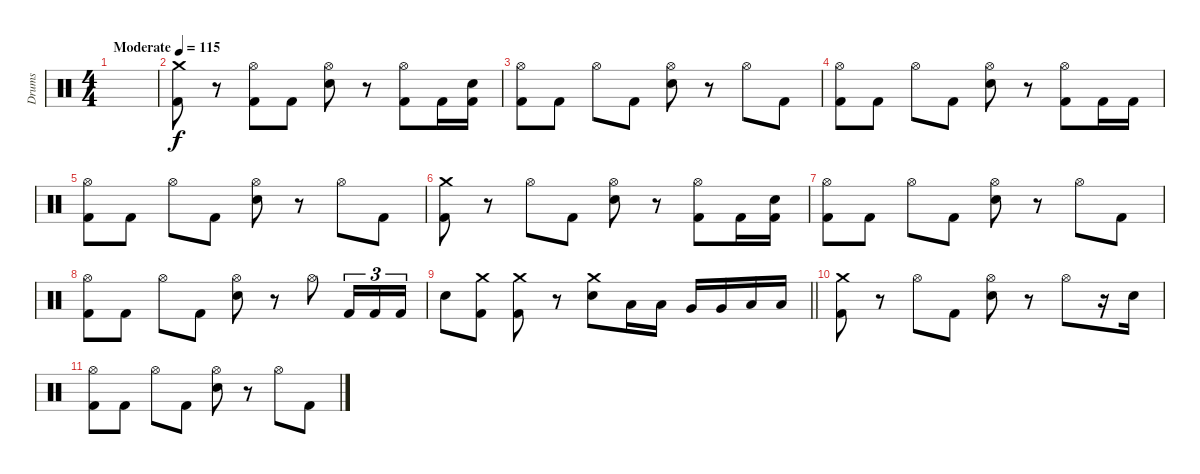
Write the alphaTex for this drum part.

\track ("Drums" "Drums") {instrument percussion}
\staff {score}
\articulation defaults
\ts (4 4)
\tempo (115 "Moderate")
\clef neutral
\ks c
|
("Crash medium (hit)" "Kick (hit) 2").8 r.8 ("Hi-Hat (open)" "Kick (hit) 2").8 "Kick (hit) 2".8 ("Hi-Hat (open)" "Snare (hit) 2").8 r.8 ("Hi-Hat (open)" "Kick (hit) 2").8 "Kick (hit) 2".16 ("Snare (hit) 2" "Kick (hit) 2").16 |
("Hi-Hat (open)" "Kick (hit) 2").8 "Kick (hit) 2".8 "Hi-Hat (open)".8 "Kick (hit) 2".8 ("Hi-Hat (open)" "Snare (hit) 2").8 r.8 "Hi-Hat (open)".8 "Kick (hit) 2".8 |
("Hi-Hat (open)" "Kick (hit) 2").8 "Kick (hit) 2".8 "Hi-Hat (open)".8 "Kick (hit) 2".8 ("Hi-Hat (open)" "Snare (hit) 2").8 r.8 ("Hi-Hat (open)" "Kick (hit) 2").8 "Kick (hit) 2".16 "Kick (hit) 2".16 |
("Hi-Hat (open)" "Kick (hit) 2").8 "Kick (hit) 2".8 "Hi-Hat (open)".8 "Kick (hit) 2".8 ("Hi-Hat (open)" "Snare (hit) 2").8 r.8 "Hi-Hat (open)".8 "Kick (hit) 2".8 |
("Crash medium (hit)" "Kick (hit) 2").8 r.8 "Hi-Hat (open)".8 "Kick (hit) 2".8 ("Hi-Hat (open)" "Snare (hit) 2").8 r.8 ("Hi-Hat (open)" "Kick (hit) 2").8 "Kick (hit) 2".16 ("Snare (hit) 2" "Kick (hit) 2").16 |
("Hi-Hat (open)" "Kick (hit) 2").8 "Kick (hit) 2".8 "Hi-Hat (open)".8 "Kick (hit) 2".8 ("Hi-Hat (open)" "Snare (hit) 2").8 r.8 "Hi-Hat (open)".8 "Kick (hit) 2".8 |
("Hi-Hat (open)" "Kick (hit) 2").8 "Kick (hit) 2".8 "Hi-Hat (open)".8 "Kick (hit) 2".8 ("Hi-Hat (open)" "Snare (hit) 2").8 r.8 "Hi-Hat (open)".8 "Kick (hit) 2".16{tu (3 2)} "Kick (hit) 2".16{tu (3 2)} "Kick (hit) 2".16{tu (3 2)} |
\barLineRight lightlight "Snare (hit) 2".8
("Crash medium (hit)" "Kick (hit) 2").8 ("Crash medium (hit)" "Kick (hit) 2").8 r.8 ("Crash medium (hit)" "Snare (hit) 2").8 "Low Tom (hit)".16 "Low Tom (hit)".16 "Very Low Tom (hit)".16 "Very Low Tom (hit)".16 "Low Floor Tom (hit)".16 "Low Floor Tom (hit)".16 |
("Crash medium (hit)" "Kick (hit) 2").8 r.8 "Hi-Hat (open)".8 "Kick (hit) 2".8 ("Hi-Hat (open)" "Snare (hit) 2").8 r.8 "Hi-Hat (open)".8 r.16 "Snare (hit) 2".16 |
("Hi-Hat (open)" "Kick (hit) 2").8 "Kick (hit) 2".8 "Hi-Hat (open)".8 "Kick (hit) 2".8 ("Hi-Hat (open)" "Snare (hit) 2").8 r.8 "Hi-Hat (open)".8 "Kick (hit) 2".8
